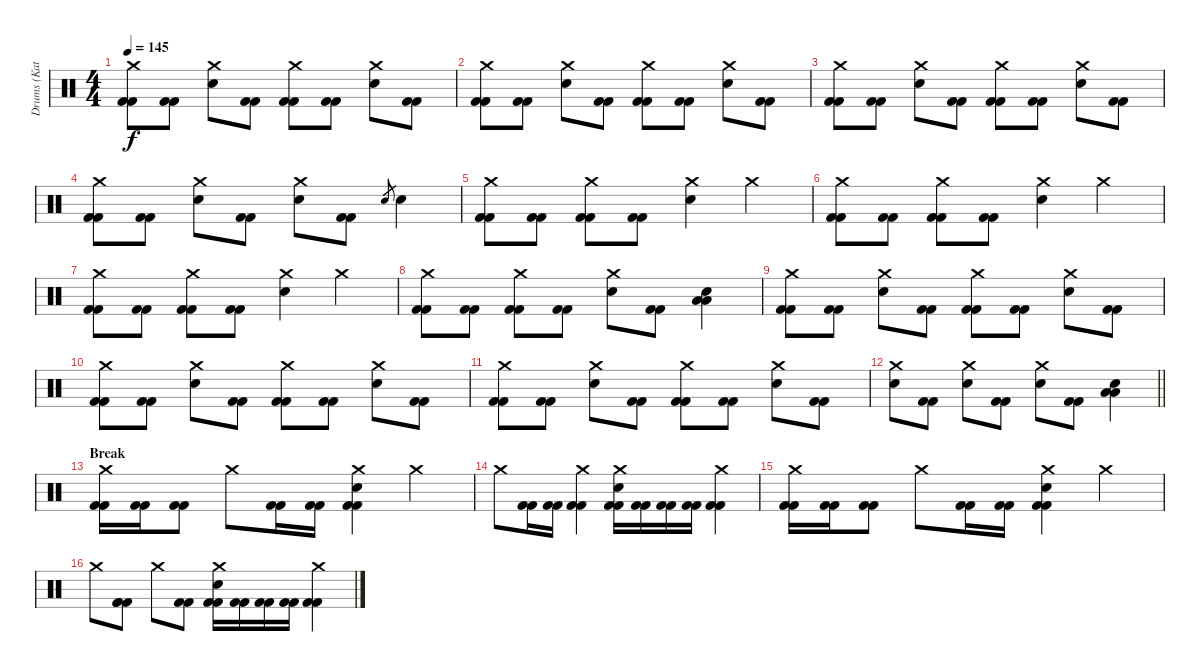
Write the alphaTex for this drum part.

\track ("Drums (Katsuma)" "Drums (Kat") {instrument percussion}
\staff {score}
\articulation defaults
\ts (4 4)
\tempo 145
\clef neutral
\ks c
("Crash medium (hit)" "Kick (hit) 2" "Kick (hit) 2").8{dy f} ("Kick (hit) 2" "Kick (hit) 2").8 ("Crash medium (hit)" "Electric Snare (hit)").8 ("Kick (hit) 2" "Kick (hit) 2").8 ("Crash medium (hit)" "Kick (hit) 2" "Kick (hit) 2").8 ("Kick (hit) 2" "Kick (hit) 2").8 ("Crash medium (hit)" "Electric Snare (hit)").8 ("Kick (hit) 2" "Kick (hit) 2").8 |
("Crash medium (hit)" "Kick (hit) 2" "Kick (hit) 2").8 ("Kick (hit) 2" "Kick (hit) 2").8 ("Crash medium (hit)" "Electric Snare (hit)").8 ("Kick (hit) 2" "Kick (hit) 2").8 ("Crash medium (hit)" "Kick (hit) 2" "Kick (hit) 2").8 ("Kick (hit) 2" "Kick (hit) 2").8 ("Crash medium (hit)" "Electric Snare (hit)").8 ("Kick (hit) 2" "Kick (hit) 2").8 |
("Crash medium (hit)" "Kick (hit) 2" "Kick (hit) 2").8 ("Kick (hit) 2" "Kick (hit) 2").8 ("Crash medium (hit)" "Electric Snare (hit)").8 ("Kick (hit) 2" "Kick (hit) 2").8 ("Crash medium (hit)" "Kick (hit) 2" "Kick (hit) 2").8 ("Kick (hit) 2" "Kick (hit) 2").8 ("Crash medium (hit)" "Electric Snare (hit)").8 ("Kick (hit) 2" "Kick (hit) 2").8 |
("Crash medium (hit)" "Kick (hit) 2" "Kick (hit) 2").8 ("Kick (hit) 2" "Kick (hit) 2").8 ("Crash medium (hit)" "Electric Snare (hit)").8 ("Kick (hit) 2" "Kick (hit) 2").8 ("Crash medium (hit)" "Electric Snare (hit)").8 ("Kick (hit) 2" "Kick (hit) 2").8 "Electric Snare (hit)".8{gr} "Electric Snare (hit)".4 |
("Crash medium (hit)" "Kick (hit) 2" "Kick (hit) 2").8 ("Kick (hit) 2" "Kick (hit) 2").8 ("Crash medium (hit)" "Kick (hit) 2" "Kick (hit) 2").8 ("Kick (hit) 2" "Kick (hit) 2").8 ("Crash medium (hit)" "Electric Snare (hit)").4 "Crash medium (hit)".4 |
("Crash medium (hit)" "Kick (hit) 2" "Kick (hit) 2").8 ("Kick (hit) 2" "Kick (hit) 2").8 ("Crash medium (hit)" "Kick (hit) 2" "Kick (hit) 2").8 ("Kick (hit) 2" "Kick (hit) 2").8 ("Crash medium (hit)" "Electric Snare (hit)").4 "Crash medium (hit)".4 |
("Crash medium (hit)" "Kick (hit) 2" "Kick (hit) 2").8 ("Kick (hit) 2" "Kick (hit) 2").8 ("Crash medium (hit)" "Kick (hit) 2" "Kick (hit) 2").8 ("Kick (hit) 2" "Kick (hit) 2").8 ("Crash medium (hit)" "Electric Snare (hit)").4 "Crash medium (hit)".4 |
("Crash medium (hit)" "Kick (hit) 2" "Kick (hit) 2").8 ("Kick (hit) 2" "Kick (hit) 2").8 ("Crash medium (hit)" "Kick (hit) 2" "Kick (hit) 2").8 ("Kick (hit) 2" "Kick (hit) 2").8 ("Crash medium (hit)" "Electric Snare (hit)").8 ("Kick (hit) 2" "Kick (hit) 2").8 ("Low Tom (hit)" "Low Tom (hit)" "Electric Snare (hit)").4 |
("Crash medium (hit)" "Kick (hit) 2" "Kick (hit) 2").8 ("Kick (hit) 2" "Kick (hit) 2").8 ("Crash medium (hit)" "Electric Snare (hit)").8 ("Kick (hit) 2" "Kick (hit) 2").8 ("Crash medium (hit)" "Kick (hit) 2" "Kick (hit) 2").8 ("Kick (hit) 2" "Kick (hit) 2").8 ("Crash medium (hit)" "Electric Snare (hit)").8 ("Kick (hit) 2" "Kick (hit) 2").8 |
("Crash medium (hit)" "Kick (hit) 2" "Kick (hit) 2").8 ("Kick (hit) 2" "Kick (hit) 2").8 ("Crash medium (hit)" "Electric Snare (hit)").8 ("Kick (hit) 2" "Kick (hit) 2").8 ("Crash medium (hit)" "Kick (hit) 2" "Kick (hit) 2").8 ("Kick (hit) 2" "Kick (hit) 2").8 ("Crash medium (hit)" "Electric Snare (hit)").8 ("Kick (hit) 2" "Kick (hit) 2").8 |
("Crash medium (hit)" "Kick (hit) 2" "Kick (hit) 2").8 ("Kick (hit) 2" "Kick (hit) 2").8 ("Crash medium (hit)" "Electric Snare (hit)").8 ("Kick (hit) 2" "Kick (hit) 2").8 ("Crash medium (hit)" "Kick (hit) 2" "Kick (hit) 2").8 ("Kick (hit) 2" "Kick (hit) 2").8 ("Crash medium (hit)" "Electric Snare (hit)").8 ("Kick (hit) 2" "Kick (hit) 2").8 |
\barLineRight lightlight
("Crash medium (hit)" "Electric Snare (hit)").8 ("Kick (hit) 2" "Kick (hit) 2").8 ("Crash medium (hit)" "Electric Snare (hit)").8 ("Kick (hit) 2" "Kick (hit) 2").8 ("Crash medium (hit)" "Electric Snare (hit)").8 ("Kick (hit) 2" "Kick (hit) 2").8 ("Low Tom (hit)" "Low Tom (hit)" "Electric Snare (hit)").4 |
\section ("" "Break")
("Crash medium (hit)" "Kick (hit) 2" "Kick (hit) 2").16 ("Kick (hit) 2" "Kick (hit) 2").16 ("Kick (hit) 2" "Kick (hit) 2").8 "Crash medium (hit)".8 ("Kick (hit) 2" "Kick (hit) 2").16 ("Kick (hit) 2" "Kick (hit) 2").16 ("Crash medium (hit)" "Electric Snare (hit)" "Kick (hit) 2" "Kick (hit) 2").4 "Crash medium (hit)".4 |
"Crash medium (hit)".8 ("Kick (hit) 2" "Kick (hit) 2").16 ("Kick (hit) 2" "Kick (hit) 2").16 ("Crash medium (hit)" "Kick (hit) 2" "Kick (hit) 2").4 ("Crash medium (hit)" "Electric Snare (hit)" "Kick (hit) 2" "Kick (hit) 2").16 ("Kick (hit) 2" "Kick (hit) 2").16 ("Kick (hit) 2" "Kick (hit) 2").16 ("Kick (hit) 2" "Kick (hit) 2").16 ("Crash medium (hit)" "Kick (hit) 2" "Kick (hit) 2").4 |
("Crash medium (hit)" "Kick (hit) 2" "Kick (hit) 2").16 ("Kick (hit) 2" "Kick (hit) 2").16 ("Kick (hit) 2" "Kick (hit) 2").8 "Crash medium (hit)".8 ("Kick (hit) 2" "Kick (hit) 2").16 ("Kick (hit) 2" "Kick (hit) 2").16 ("Crash medium (hit)" "Electric Snare (hit)" "Kick (hit) 2" "Kick (hit) 2").4 "Crash medium (hit)".4 |
"Crash medium (hit)".8 ("Kick (hit) 2" "Kick (hit) 2" "Kick (hit) 2").8 "Crash medium (hit)".8 ("Kick (hit) 2" "Kick (hit) 2").8 ("Crash medium (hit)" "Electric Snare (hit)" "Kick (hit) 2" "Kick (hit) 2").16 ("Kick (hit) 2" "Kick (hit) 2").16 ("Kick (hit) 2" "Kick (hit) 2").16 ("Kick (hit) 2" "Kick (hit) 2").16 ("Crash medium (hit)" "Kick (hit) 2" "Kick (hit) 2").4
